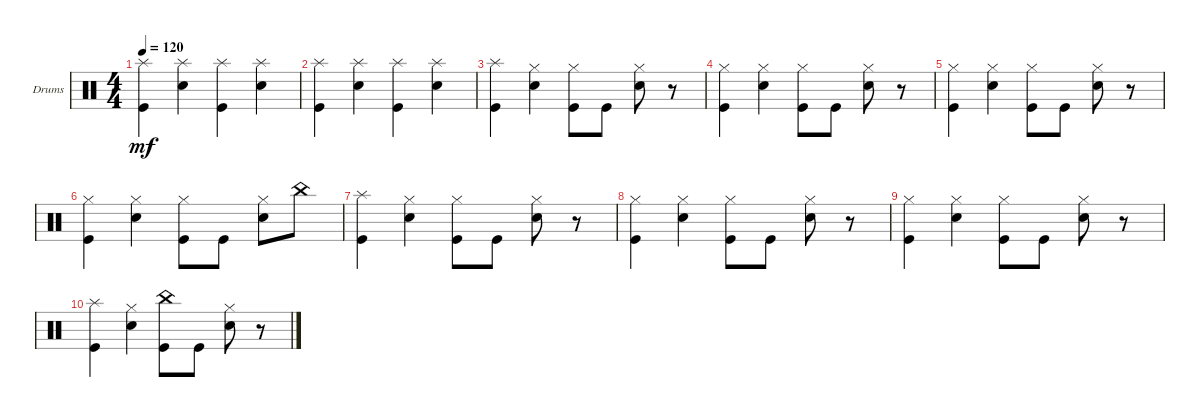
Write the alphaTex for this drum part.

\bracketExtendMode groupsimilarinstruments
\firstSystemTrackNameOrientation horizontal
\otherSystemsTrackNameOrientation horizontal
\track ("Drumkit" "Drums") {instrument percussion}
\staff {score}
\articulation defaults
\ts (4 4)
\tempo 120
\clef neutral
\ks c
("Kick (hit)" "Splash (hit)").4{dy mf} ("Splash (hit)" "Snare (hit) 2").4 ("Splash (hit)" "Kick (hit)").4 ("Splash (hit)" "Snare (hit) 2").4 |
("Kick (hit)" "Splash (hit)").4 ("Splash (hit)" "Snare (hit) 2").4 ("Splash (hit)" "Kick (hit)").4 ("Splash (hit)" "Snare (hit) 2").4 |
("Splash (hit)" "Kick (hit)").4 ("Hi-Hat (closed)" "Snare (hit) 2").4 ("Hi-Hat (closed)" "Kick (hit)").8 "Kick (hit)".8 ("Hi-Hat (closed)" "Snare (hit) 2").8 r.8 |
("Kick (hit)" "Hi-Hat (closed)").4 ("Hi-Hat (closed)" "Snare (hit) 2").4 ("Hi-Hat (closed)" "Kick (hit)").8 "Kick (hit)".8 ("Hi-Hat (closed)" "Snare (hit) 2").8 r.8 |
("Kick (hit)" "Hi-Hat (closed)").4 ("Hi-Hat (closed)" "Snare (hit) 2").4 ("Hi-Hat (closed)" "Kick (hit)").8 "Kick (hit)".8 ("Hi-Hat (closed)" "Snare (hit) 2").8 r.8 |
("Kick (hit)" "Hi-Hat (closed)").4 ("Hi-Hat (closed)" "Snare (hit) 2").4 ("Hi-Hat (closed)" "Kick (hit)").8 "Kick (hit)".8 ("Hi-Hat (closed)" "Snare (hit) 2").8 "China (hit)".8 |
("Splash (hit)" "Kick (hit)").4 ("Hi-Hat (closed)" "Snare (hit) 2").4 ("Hi-Hat (closed)" "Kick (hit)").8 "Kick (hit)".8 ("Hi-Hat (closed)" "Snare (hit) 2").8 r.8 |
("Kick (hit)" "Hi-Hat (closed)").4 ("Hi-Hat (closed)" "Snare (hit) 2").4 ("Hi-Hat (closed)" "Kick (hit)").8 "Kick (hit)".8 ("Hi-Hat (closed)" "Snare (hit) 2").8 r.8 |
("Kick (hit)" "Hi-Hat (closed)").4 ("Hi-Hat (closed)" "Snare (hit) 2").4 ("Hi-Hat (closed)" "Kick (hit)").8 "Kick (hit)".8 ("Hi-Hat (closed)" "Snare (hit) 2").8 r.8 |
("Kick (hit)" "Splash (hit)").4 ("Hi-Hat (closed)" "Snare (hit) 2").4 ("Kick (hit)" "China (hit)").8 "Kick (hit)".8 ("Hi-Hat (closed)" "Snare (hit) 2").8 r.8
